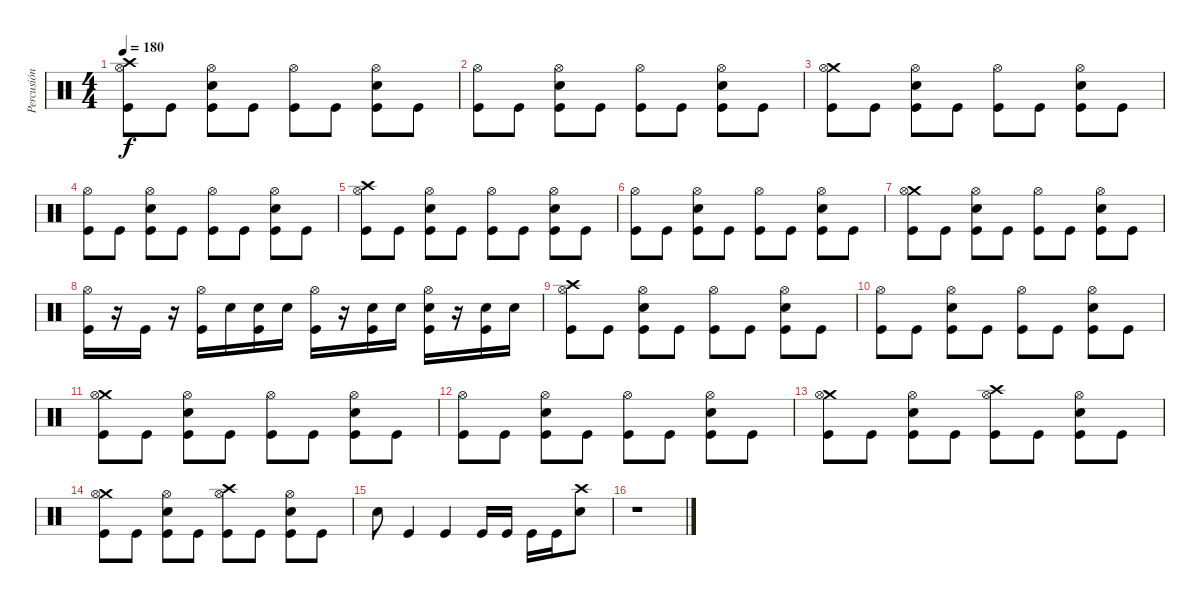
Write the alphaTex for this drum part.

\track ("Percusión" "Percusión") {instrument percussion}
\staff {score}
\articulation defaults
\ts (4 4)
\tempo 180
\clef neutral
\ks c
("Crash high (hit)" "Hi-Hat (open)" "Kick (hit)").8{dy f} "Kick (hit)".8 ("Hi-Hat (open)" "Electric Snare (hit)" "Kick (hit)").8 "Kick (hit)".8 ("Hi-Hat (open)" "Kick (hit)").8 "Kick (hit)".8 ("Hi-Hat (open)" "Electric Snare (hit)" "Kick (hit)").8 "Kick (hit)".8 |
("Hi-Hat (open)" "Kick (hit)").8 "Kick (hit)".8 ("Hi-Hat (open)" "Electric Snare (hit)" "Kick (hit)").8 "Kick (hit)".8 ("Hi-Hat (open)" "Kick (hit)").8 "Kick (hit)".8 ("Hi-Hat (open)" "Electric Snare (hit)" "Kick (hit)").8 "Kick (hit)".8 |
("Crash medium (hit)" "Hi-Hat (open)" "Kick (hit)").8 "Kick (hit)".8 ("Hi-Hat (open)" "Electric Snare (hit)" "Kick (hit)").8 "Kick (hit)".8 ("Hi-Hat (open)" "Kick (hit)").8 "Kick (hit)".8 ("Hi-Hat (open)" "Electric Snare (hit)" "Kick (hit)").8 "Kick (hit)".8 |
("Hi-Hat (open)" "Kick (hit)").8 "Kick (hit)".8 ("Hi-Hat (open)" "Electric Snare (hit)" "Kick (hit)").8 "Kick (hit)".8 ("Hi-Hat (open)" "Kick (hit)").8 "Kick (hit)".8 ("Hi-Hat (open)" "Electric Snare (hit)" "Kick (hit)").8 "Kick (hit)".8 |
("Crash high (hit)" "Hi-Hat (open)" "Kick (hit)").8 "Kick (hit)".8 ("Hi-Hat (open)" "Electric Snare (hit)" "Kick (hit)").8 "Kick (hit)".8 ("Hi-Hat (open)" "Kick (hit)").8 "Kick (hit)".8 ("Hi-Hat (open)" "Electric Snare (hit)" "Kick (hit)").8 "Kick (hit)".8 |
("Hi-Hat (open)" "Kick (hit)").8 "Kick (hit)".8 ("Hi-Hat (open)" "Electric Snare (hit)" "Kick (hit)").8 "Kick (hit)".8 ("Hi-Hat (open)" "Kick (hit)").8 "Kick (hit)".8 ("Hi-Hat (open)" "Electric Snare (hit)" "Kick (hit)").8 "Kick (hit)".8 |
("Crash medium (hit)" "Hi-Hat (open)" "Kick (hit)").8 "Kick (hit)".8 ("Hi-Hat (open)" "Electric Snare (hit)" "Kick (hit)").8 "Kick (hit)".8 ("Hi-Hat (open)" "Kick (hit)").8 "Kick (hit)".8 ("Hi-Hat (open)" "Electric Snare (hit)" "Kick (hit)").8 "Kick (hit)".8 |
("Hi-Hat (open)" "Kick (hit)").16 r.16 "Kick (hit)".16 r.16 ("Hi-Hat (open)" "Kick (hit)").16 "Electric Snare (hit)".16 ("Electric Snare (hit)" "Kick (hit)").16 "Electric Snare (hit)".16 ("Hi-Hat (open)" "Kick (hit)").16 r.16 ("Electric Snare (hit)" "Kick (hit)").16 "Electric Snare (hit)".16 ("Hi-Hat (open)" "Electric Snare (hit)" "Kick (hit)").16 r.16 ("Electric Snare (hit)" "Kick (hit)").16 "Electric Snare (hit)".16 |
("Crash high (hit)" "Hi-Hat (open)" "Kick (hit)").8 "Kick (hit)".8 ("Hi-Hat (open)" "Electric Snare (hit)" "Kick (hit)").8 "Kick (hit)".8 ("Hi-Hat (open)" "Kick (hit)").8 "Kick (hit)".8 ("Hi-Hat (open)" "Electric Snare (hit)" "Kick (hit)").8 "Kick (hit)".8 |
("Hi-Hat (open)" "Kick (hit)").8 "Kick (hit)".8 ("Hi-Hat (open)" "Electric Snare (hit)" "Kick (hit)").8 "Kick (hit)".8 ("Hi-Hat (open)" "Kick (hit)").8 "Kick (hit)".8 ("Hi-Hat (open)" "Electric Snare (hit)" "Kick (hit)").8 "Kick (hit)".8 |
("Crash medium (hit)" "Hi-Hat (open)" "Kick (hit)").8 "Kick (hit)".8 ("Hi-Hat (open)" "Electric Snare (hit)" "Kick (hit)").8 "Kick (hit)".8 ("Hi-Hat (open)" "Kick (hit)").8 "Kick (hit)".8 ("Hi-Hat (open)" "Electric Snare (hit)" "Kick (hit)").8 "Kick (hit)".8 |
("Hi-Hat (open)" "Kick (hit)").8 "Kick (hit)".8 ("Hi-Hat (open)" "Electric Snare (hit)" "Kick (hit)").8 "Kick (hit)".8 ("Hi-Hat (open)" "Kick (hit)").8 "Kick (hit)".8 ("Hi-Hat (open)" "Electric Snare (hit)" "Kick (hit)").8 "Kick (hit)".8 |
("Crash medium (hit)" "Hi-Hat (open)" "Kick (hit)").8 "Kick (hit)".8 ("Hi-Hat (open)" "Electric Snare (hit)" "Kick (hit)").8 "Kick (hit)".8 ("Crash high (hit)" "Hi-Hat (open)" "Kick (hit)").8 "Kick (hit)".8 ("Hi-Hat (open)" "Electric Snare (hit)" "Kick (hit)").8 "Kick (hit)".8 |
("Crash medium (hit)" "Hi-Hat (open)" "Kick (hit)").8 "Kick (hit)".8 ("Hi-Hat (open)" "Electric Snare (hit)" "Kick (hit)").8 "Kick (hit)".8 ("Crash high (hit)" "Hi-Hat (open)" "Kick (hit)").8 "Kick (hit)".8 ("Hi-Hat (open)" "Electric Snare (hit)" "Kick (hit)").8 "Kick (hit)".8 |
"Electric Snare (hit)".8 "Kick (hit)".4 "Kick (hit)".4 "Kick (hit)".16 "Kick (hit)".16 "Kick (hit)".16 "Kick (hit)".16 ("Crash high (hit)" "Electric Snare (hit)").8 |
r.1
